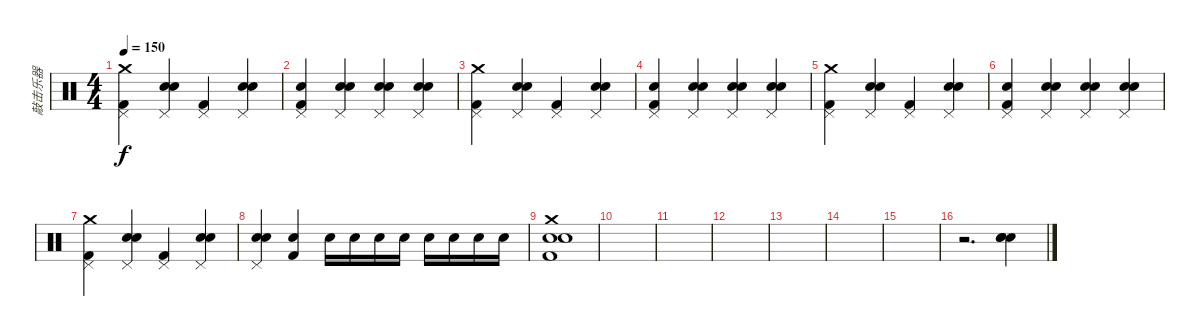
\track ("敲击乐器" "敲击乐器") {instrument percussion}
\staff {score}
\articulation defaults
\ts (4 4)
\tempo 150
\clef neutral
\ks c
("Kick (hit) 2" "Pedal Hi-Hat (hit)" "Crash medium (hit)").4{dy f} ("Snare (hit) 2" "Electric Snare (hit)" "Pedal Hi-Hat (hit)").4 ("Kick (hit) 2" "Pedal Hi-Hat (hit)").4 ("Snare (hit) 2" "Electric Snare (hit)" "Pedal Hi-Hat (hit)").4 |
("Kick (hit) 2" "Electric Snare (hit)" "Pedal Hi-Hat (hit)").4 ("Snare (hit) 2" "Electric Snare (hit)" "Pedal Hi-Hat (hit)").4 ("Snare (hit) 2" "Electric Snare (hit)" "Pedal Hi-Hat (hit)").4 ("Snare (hit) 2" "Electric Snare (hit)" "Pedal Hi-Hat (hit)").4 |
("Kick (hit) 2" "Pedal Hi-Hat (hit)" "Crash medium (hit)").4 ("Snare (hit) 2" "Electric Snare (hit)" "Pedal Hi-Hat (hit)").4 ("Kick (hit) 2" "Pedal Hi-Hat (hit)").4 ("Snare (hit) 2" "Electric Snare (hit)" "Pedal Hi-Hat (hit)").4 |
("Kick (hit) 2" "Electric Snare (hit)" "Pedal Hi-Hat (hit)").4 ("Snare (hit) 2" "Electric Snare (hit)" "Pedal Hi-Hat (hit)").4 ("Snare (hit) 2" "Electric Snare (hit)" "Pedal Hi-Hat (hit)").4 ("Snare (hit) 2" "Electric Snare (hit)" "Pedal Hi-Hat (hit)").4 |
("Kick (hit) 2" "Pedal Hi-Hat (hit)" "Crash medium (hit)").4 ("Snare (hit) 2" "Electric Snare (hit)" "Pedal Hi-Hat (hit)").4 ("Kick (hit) 2" "Pedal Hi-Hat (hit)").4 ("Snare (hit) 2" "Electric Snare (hit)" "Pedal Hi-Hat (hit)").4 |
("Kick (hit) 2" "Electric Snare (hit)" "Pedal Hi-Hat (hit)").4 ("Snare (hit) 2" "Electric Snare (hit)" "Pedal Hi-Hat (hit)").4 ("Snare (hit) 2" "Electric Snare (hit)" "Pedal Hi-Hat (hit)").4 ("Snare (hit) 2" "Electric Snare (hit)" "Pedal Hi-Hat (hit)").4 |
("Kick (hit) 2" "Pedal Hi-Hat (hit)" "Crash medium (hit)").4 ("Snare (hit) 2" "Electric Snare (hit)" "Pedal Hi-Hat (hit)").4 ("Kick (hit) 2" "Pedal Hi-Hat (hit)").4 ("Snare (hit) 2" "Electric Snare (hit)" "Pedal Hi-Hat (hit)").4 |
("Snare (hit) 2" "Electric Snare (hit)" "Pedal Hi-Hat (hit)").4 ("Kick (hit) 2" "Electric Snare (hit)").4 "Electric Snare (hit)".16 "Electric Snare (hit)".16 "Electric Snare (hit)".16 "Electric Snare (hit)".16 "Electric Snare (hit)".16 "Electric Snare (hit)".16 "Electric Snare (hit)".16 "Electric Snare (hit)".16 |
("Kick (hit) 2" "Snare (hit) 2" "Crash medium (hit)" "Electric Snare (hit)").1 |
|
|
|
|
|
|
r.2{d} ("Snare (hit) 2" "Metronome (bell)" "Electric Snare (hit)").4
